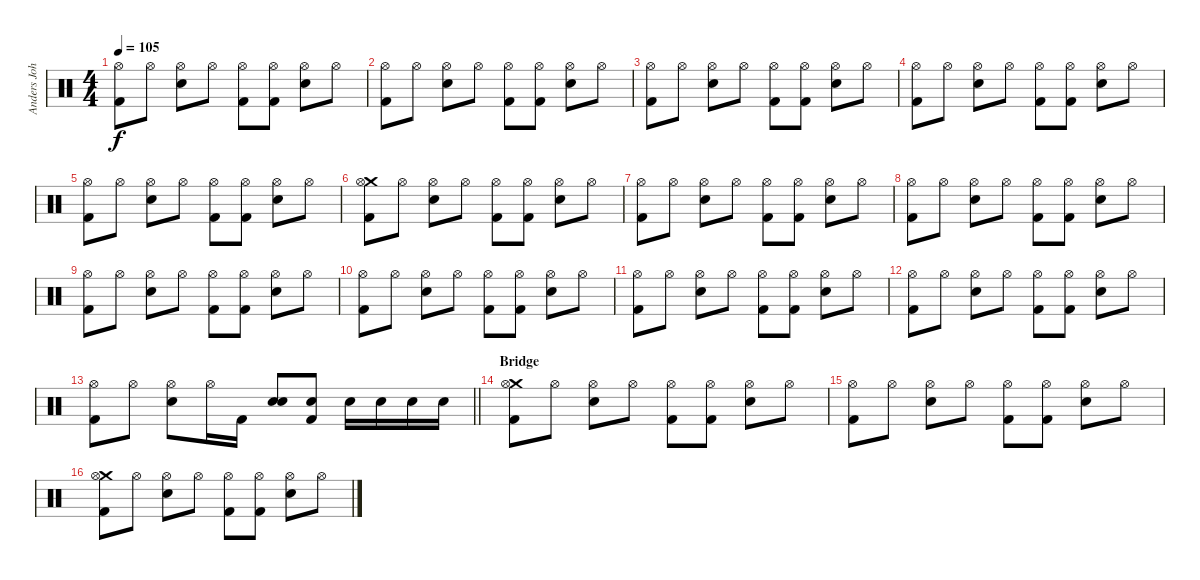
\track ("Anders Johansson" "Anders Joh") {instrument percussion}
\staff {score}
\articulation defaults
\ts (4 4)
\tempo 105
\clef neutral
\ks c
("Hi-Hat (open)" "Kick (hit) 2").8{dy f} "Hi-Hat (open)".8 ("Hi-Hat (open)" "Snare (hit) 2").8 "Hi-Hat (open)".8 ("Hi-Hat (open)" "Kick (hit) 2").8 ("Hi-Hat (open)" "Kick (hit) 2").8 ("Hi-Hat (open)" "Snare (hit) 2").8 "Hi-Hat (open)".8 |
("Hi-Hat (open)" "Kick (hit) 2").8 "Hi-Hat (open)".8 ("Hi-Hat (open)" "Snare (hit) 2").8 "Hi-Hat (open)".8 ("Hi-Hat (open)" "Kick (hit) 2").8 ("Hi-Hat (open)" "Kick (hit) 2").8 ("Hi-Hat (open)" "Snare (hit) 2").8 "Hi-Hat (open)".8 |
("Hi-Hat (open)" "Kick (hit) 2").8 "Hi-Hat (open)".8 ("Hi-Hat (open)" "Snare (hit) 2").8 "Hi-Hat (open)".8 ("Hi-Hat (open)" "Kick (hit) 2").8 ("Hi-Hat (open)" "Kick (hit) 2").8 ("Hi-Hat (open)" "Snare (hit) 2").8 "Hi-Hat (open)".8 |
("Hi-Hat (open)" "Kick (hit) 2").8 "Hi-Hat (open)".8 ("Hi-Hat (open)" "Snare (hit) 2").8 "Hi-Hat (open)".8 ("Hi-Hat (open)" "Kick (hit) 2").8 ("Hi-Hat (open)" "Kick (hit) 2").8 ("Hi-Hat (open)" "Snare (hit) 2").8 "Hi-Hat (open)".8 |
("Hi-Hat (open)" "Kick (hit) 2").8 "Hi-Hat (open)".8 ("Hi-Hat (open)" "Snare (hit) 2").8 "Hi-Hat (open)".8 ("Hi-Hat (open)" "Kick (hit) 2").8 ("Hi-Hat (open)" "Kick (hit) 2").8 ("Hi-Hat (open)" "Snare (hit) 2").8 "Hi-Hat (open)".8 |
("Crash medium (hit)" "Hi-Hat (open)" "Kick (hit) 2").8 "Hi-Hat (open)".8 ("Hi-Hat (open)" "Snare (hit) 2").8 "Hi-Hat (open)".8 ("Hi-Hat (open)" "Kick (hit) 2").8 ("Hi-Hat (open)" "Kick (hit) 2").8 ("Hi-Hat (open)" "Snare (hit) 2").8 "Hi-Hat (open)".8 |
("Hi-Hat (open)" "Kick (hit) 2").8 "Hi-Hat (open)".8 ("Hi-Hat (open)" "Snare (hit) 2").8 "Hi-Hat (open)".8 ("Hi-Hat (open)" "Kick (hit) 2").8 ("Hi-Hat (open)" "Kick (hit) 2").8 ("Hi-Hat (open)" "Snare (hit) 2").8 "Hi-Hat (open)".8 |
("Hi-Hat (open)" "Kick (hit) 2").8 "Hi-Hat (open)".8 ("Hi-Hat (open)" "Snare (hit) 2").8 "Hi-Hat (open)".8 ("Hi-Hat (open)" "Kick (hit) 2").8 ("Hi-Hat (open)" "Kick (hit) 2").8 ("Hi-Hat (open)" "Snare (hit) 2").8 "Hi-Hat (open)".8 |
("Hi-Hat (open)" "Kick (hit) 2").8 "Hi-Hat (open)".8 ("Hi-Hat (open)" "Snare (hit) 2").8 "Hi-Hat (open)".8 ("Hi-Hat (open)" "Kick (hit) 2").8 ("Hi-Hat (open)" "Kick (hit) 2").8 ("Hi-Hat (open)" "Snare (hit) 2").8 "Hi-Hat (open)".8 |
("Hi-Hat (open)" "Kick (hit) 2").8 "Hi-Hat (open)".8 ("Hi-Hat (open)" "Snare (hit) 2").8 "Hi-Hat (open)".8 ("Hi-Hat (open)" "Kick (hit) 2").8 ("Hi-Hat (open)" "Kick (hit) 2").8 ("Hi-Hat (open)" "Snare (hit) 2").8 "Hi-Hat (open)".8 |
("Hi-Hat (open)" "Kick (hit) 2").8 "Hi-Hat (open)".8 ("Hi-Hat (open)" "Snare (hit) 2").8 "Hi-Hat (open)".8 ("Hi-Hat (open)" "Kick (hit) 2").8 ("Hi-Hat (open)" "Kick (hit) 2").8 ("Hi-Hat (open)" "Snare (hit) 2").8 "Hi-Hat (open)".8 |
("Hi-Hat (open)" "Kick (hit) 2").8 "Hi-Hat (open)".8 ("Hi-Hat (open)" "Snare (hit) 2").8 "Hi-Hat (open)".8 ("Hi-Hat (open)" "Kick (hit) 2").8 ("Hi-Hat (open)" "Kick (hit) 2").8 ("Hi-Hat (open)" "Snare (hit) 2").8 "Hi-Hat (open)".8 |
\barLineRight lightlight
("Hi-Hat (open)" "Kick (hit) 2").8 "Hi-Hat (open)".8 ("Hi-Hat (open)" "Snare (hit) 2").8 "Hi-Hat (open)".16 "Kick (hit) 2".16 ("Snare (hit) 2" "Snare (hit) 2").8 ("Snare (hit) 2" "Kick (hit) 2").8 "Snare (hit) 2".16 "Snare (hit) 2".16 "Snare (hit) 2".16 "Snare (hit) 2".16 |
\section ("" "Bridge")
("Crash medium (hit)" "Hi-Hat (open)" "Kick (hit) 2").8 "Hi-Hat (open)".8 ("Hi-Hat (open)" "Snare (hit) 2").8 "Hi-Hat (open)".8 ("Hi-Hat (open)" "Kick (hit) 2").8 ("Hi-Hat (open)" "Kick (hit) 2").8 ("Hi-Hat (open)" "Snare (hit) 2").8 "Hi-Hat (open)".8 |
("Hi-Hat (open)" "Kick (hit) 2").8 "Hi-Hat (open)".8 ("Hi-Hat (open)" "Snare (hit) 2").8 "Hi-Hat (open)".8 ("Hi-Hat (open)" "Kick (hit) 2").8 ("Hi-Hat (open)" "Kick (hit) 2").8 ("Hi-Hat (open)" "Snare (hit) 2").8 "Hi-Hat (open)".8 |
("Crash medium (hit)" "Hi-Hat (open)" "Kick (hit) 2").8 "Hi-Hat (open)".8 ("Hi-Hat (open)" "Snare (hit) 2").8 "Hi-Hat (open)".8 ("Hi-Hat (open)" "Kick (hit) 2").8 ("Hi-Hat (open)" "Kick (hit) 2").8 ("Hi-Hat (open)" "Snare (hit) 2").8 "Hi-Hat (open)".8
